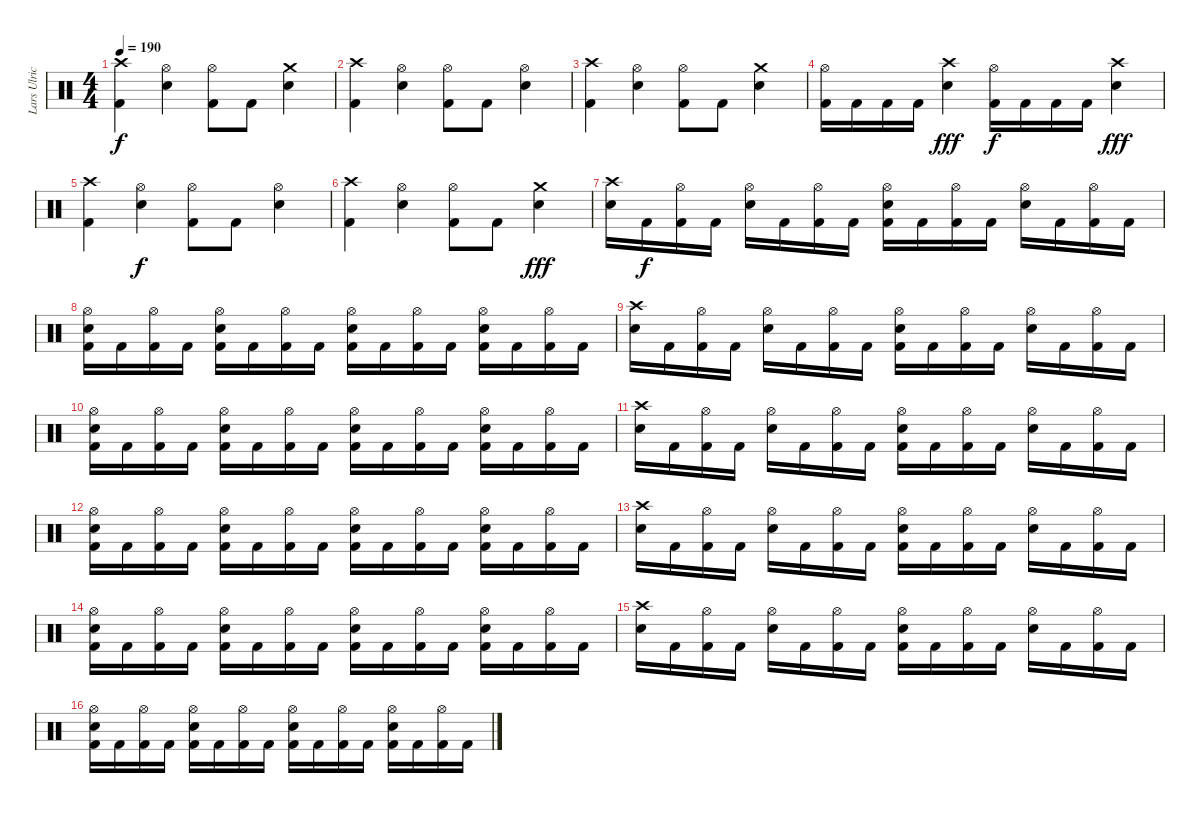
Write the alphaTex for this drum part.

\track ("Lars Ulrich" "Lars Ulric") {instrument percussion}
\staff {score}
\articulation defaults
\ts (4 4)
\tempo 190
\clef neutral
\ks c
("Crash high (hit)" "Kick (hit) 2").4{dy f} ("Hi-Hat (open)" "Snare (hit) 2").4 ("Hi-Hat (open)" "Kick (hit) 2").8 "Kick (hit) 2".8 ("Crash medium (hit)" "Snare (hit) 2").4 |
("Crash high (hit)" "Kick (hit) 2").4 ("Hi-Hat (open)" "Snare (hit) 2").4 ("Hi-Hat (open)" "Kick (hit) 2").8 "Kick (hit) 2".8 ("Hi-Hat (open)" "Snare (hit) 2").4 |
("Crash high (hit)" "Kick (hit) 2").4 ("Hi-Hat (open)" "Snare (hit) 2").4 ("Hi-Hat (open)" "Kick (hit) 2").8 "Kick (hit) 2".8 ("Crash medium (hit)" "Snare (hit) 2").4 |
("Hi-Hat (open)" "Kick (hit) 2").16 "Kick (hit) 2".16 "Kick (hit) 2".16 "Kick (hit) 2".16 ("Crash high (hit)" "Snare (hit) 2").4{dy fff} ("Hi-Hat (open)" "Kick (hit) 2").16{dy f} "Kick (hit) 2".16 "Kick (hit) 2".16 "Kick (hit) 2".16 ("Crash high (hit)" "Snare (hit) 2").4{dy fff} |
("Crash high (hit)" "Kick (hit) 2").4 ("Hi-Hat (open)" "Snare (hit) 2").4{dy f} ("Hi-Hat (open)" "Kick (hit) 2").8 "Kick (hit) 2".8 ("Hi-Hat (open)" "Snare (hit) 2").4 |
("Crash high (hit)" "Kick (hit) 2").4 ("Hi-Hat (open)" "Snare (hit) 2").4 ("Hi-Hat (open)" "Kick (hit) 2").8 "Kick (hit) 2".8 ("Crash medium (hit)" "Snare (hit) 2").4{dy fff} |
("Crash high (hit)" "Snare (hit) 2").16 "Kick (hit) 2".16{dy f} ("Hi-Hat (open)" "Kick (hit) 2").16 "Kick (hit) 2".16 ("Hi-Hat (open)" "Snare (hit) 2").16 "Kick (hit) 2".16 ("Hi-Hat (open)" "Kick (hit) 2").16 "Kick (hit) 2".16 ("Hi-Hat (open)" "Snare (hit) 2" "Kick (hit) 2").16 "Kick (hit) 2".16 ("Hi-Hat (open)" "Kick (hit) 2").16 "Kick (hit) 2".16 ("Hi-Hat (open)" "Snare (hit) 2").16 "Kick (hit) 2".16 ("Hi-Hat (open)" "Kick (hit) 2").16 "Kick (hit) 2".16 |
("Hi-Hat (open)" "Snare (hit) 2" "Kick (hit) 2").16 "Kick (hit) 2".16 ("Hi-Hat (open)" "Kick (hit) 2").16 "Kick (hit) 2".16 ("Hi-Hat (open)" "Snare (hit) 2" "Kick (hit) 2").16 "Kick (hit) 2".16 ("Hi-Hat (open)" "Kick (hit) 2").16 "Kick (hit) 2".16 ("Hi-Hat (open)" "Snare (hit) 2" "Kick (hit) 2").16 "Kick (hit) 2".16 ("Hi-Hat (open)" "Kick (hit) 2").16 "Kick (hit) 2".16 ("Hi-Hat (open)" "Snare (hit) 2" "Kick (hit) 2").16 "Kick (hit) 2".16 ("Hi-Hat (open)" "Kick (hit) 2").16 "Kick (hit) 2".16 |
("Crash high (hit)" "Snare (hit) 2").16 "Kick (hit) 2".16 ("Hi-Hat (open)" "Kick (hit) 2").16 "Kick (hit) 2".16 ("Hi-Hat (open)" "Snare (hit) 2").16 "Kick (hit) 2".16 ("Hi-Hat (open)" "Kick (hit) 2").16 "Kick (hit) 2".16 ("Hi-Hat (open)" "Snare (hit) 2" "Kick (hit) 2").16 "Kick (hit) 2".16 ("Hi-Hat (open)" "Kick (hit) 2").16 "Kick (hit) 2".16 ("Hi-Hat (open)" "Snare (hit) 2").16 "Kick (hit) 2".16 ("Hi-Hat (open)" "Kick (hit) 2").16 "Kick (hit) 2".16 |
("Hi-Hat (open)" "Snare (hit) 2" "Kick (hit) 2").16 "Kick (hit) 2".16 ("Hi-Hat (open)" "Kick (hit) 2").16 "Kick (hit) 2".16 ("Hi-Hat (open)" "Snare (hit) 2" "Kick (hit) 2").16 "Kick (hit) 2".16 ("Hi-Hat (open)" "Kick (hit) 2").16 "Kick (hit) 2".16 ("Hi-Hat (open)" "Snare (hit) 2" "Kick (hit) 2").16 "Kick (hit) 2".16 ("Hi-Hat (open)" "Kick (hit) 2").16 "Kick (hit) 2".16 ("Hi-Hat (open)" "Snare (hit) 2" "Kick (hit) 2").16 "Kick (hit) 2".16 ("Hi-Hat (open)" "Kick (hit) 2").16 "Kick (hit) 2".16 |
("Crash high (hit)" "Snare (hit) 2").16 "Kick (hit) 2".16 ("Hi-Hat (open)" "Kick (hit) 2").16 "Kick (hit) 2".16 ("Hi-Hat (open)" "Snare (hit) 2").16 "Kick (hit) 2".16 ("Hi-Hat (open)" "Kick (hit) 2").16 "Kick (hit) 2".16 ("Hi-Hat (open)" "Snare (hit) 2" "Kick (hit) 2").16 "Kick (hit) 2".16 ("Hi-Hat (open)" "Kick (hit) 2").16 "Kick (hit) 2".16 ("Hi-Hat (open)" "Snare (hit) 2").16 "Kick (hit) 2".16 ("Hi-Hat (open)" "Kick (hit) 2").16 "Kick (hit) 2".16 |
("Hi-Hat (open)" "Snare (hit) 2" "Kick (hit) 2").16 "Kick (hit) 2".16 ("Hi-Hat (open)" "Kick (hit) 2").16 "Kick (hit) 2".16 ("Hi-Hat (open)" "Snare (hit) 2" "Kick (hit) 2").16 "Kick (hit) 2".16 ("Hi-Hat (open)" "Kick (hit) 2").16 "Kick (hit) 2".16 ("Hi-Hat (open)" "Snare (hit) 2" "Kick (hit) 2").16 "Kick (hit) 2".16 ("Hi-Hat (open)" "Kick (hit) 2").16 "Kick (hit) 2".16 ("Hi-Hat (open)" "Snare (hit) 2" "Kick (hit) 2").16 "Kick (hit) 2".16 ("Hi-Hat (open)" "Kick (hit) 2").16 "Kick (hit) 2".16 |
("Crash high (hit)" "Snare (hit) 2").16 "Kick (hit) 2".16 ("Hi-Hat (open)" "Kick (hit) 2").16 "Kick (hit) 2".16 ("Hi-Hat (open)" "Snare (hit) 2").16 "Kick (hit) 2".16 ("Hi-Hat (open)" "Kick (hit) 2").16 "Kick (hit) 2".16 ("Hi-Hat (open)" "Snare (hit) 2" "Kick (hit) 2").16 "Kick (hit) 2".16 ("Hi-Hat (open)" "Kick (hit) 2").16 "Kick (hit) 2".16 ("Hi-Hat (open)" "Snare (hit) 2").16 "Kick (hit) 2".16 ("Hi-Hat (open)" "Kick (hit) 2").16 "Kick (hit) 2".16 |
("Hi-Hat (open)" "Snare (hit) 2" "Kick (hit) 2").16 "Kick (hit) 2".16 ("Hi-Hat (open)" "Kick (hit) 2").16 "Kick (hit) 2".16 ("Hi-Hat (open)" "Snare (hit) 2" "Kick (hit) 2").16 "Kick (hit) 2".16 ("Hi-Hat (open)" "Kick (hit) 2").16 "Kick (hit) 2".16 ("Hi-Hat (open)" "Snare (hit) 2" "Kick (hit) 2").16 "Kick (hit) 2".16 ("Hi-Hat (open)" "Kick (hit) 2").16 "Kick (hit) 2".16 ("Hi-Hat (open)" "Snare (hit) 2" "Kick (hit) 2").16 "Kick (hit) 2".16 ("Hi-Hat (open)" "Kick (hit) 2").16 "Kick (hit) 2".16 |
("Crash high (hit)" "Snare (hit) 2").16 "Kick (hit) 2".16 ("Hi-Hat (open)" "Kick (hit) 2").16 "Kick (hit) 2".16 ("Hi-Hat (open)" "Snare (hit) 2").16 "Kick (hit) 2".16 ("Hi-Hat (open)" "Kick (hit) 2").16 "Kick (hit) 2".16 ("Hi-Hat (open)" "Snare (hit) 2" "Kick (hit) 2").16 "Kick (hit) 2".16 ("Hi-Hat (open)" "Kick (hit) 2").16 "Kick (hit) 2".16 ("Hi-Hat (open)" "Snare (hit) 2").16 "Kick (hit) 2".16 ("Hi-Hat (open)" "Kick (hit) 2").16 "Kick (hit) 2".16 |
("Hi-Hat (open)" "Snare (hit) 2" "Kick (hit) 2").16 "Kick (hit) 2".16 ("Hi-Hat (open)" "Kick (hit) 2").16 "Kick (hit) 2".16 ("Hi-Hat (open)" "Snare (hit) 2" "Kick (hit) 2").16 "Kick (hit) 2".16 ("Hi-Hat (open)" "Kick (hit) 2").16 "Kick (hit) 2".16 ("Hi-Hat (open)" "Snare (hit) 2" "Kick (hit) 2").16 "Kick (hit) 2".16 ("Hi-Hat (open)" "Kick (hit) 2").16 "Kick (hit) 2".16 ("Hi-Hat (open)" "Snare (hit) 2" "Kick (hit) 2").16 "Kick (hit) 2".16 ("Hi-Hat (open)" "Kick (hit) 2").16 "Kick (hit) 2".16
